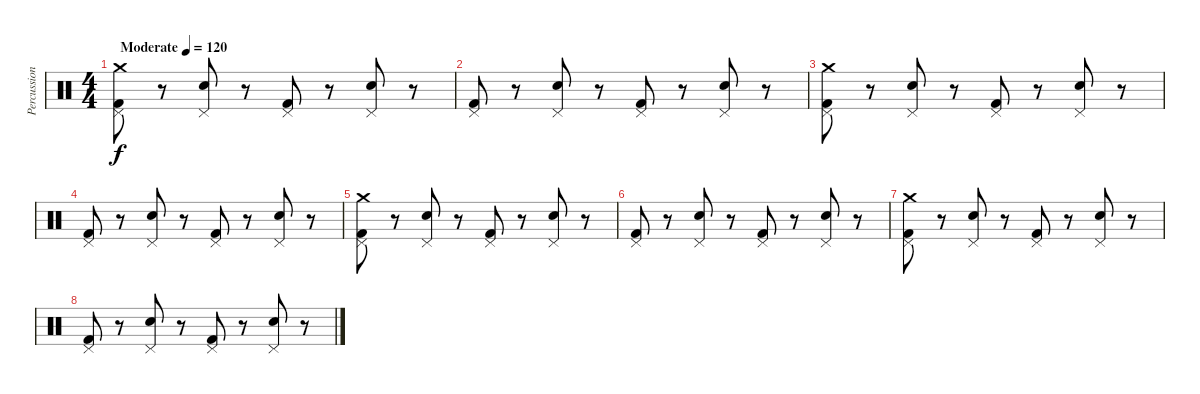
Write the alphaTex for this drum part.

\track ("Percussions" "Percussion") {instrument percussion}
\staff {score}
\articulation defaults
\ts (4 4)
\tempo (120 "Moderate")
\clef neutral
\ks c
("Crash medium (hit)" "Pedal Hi-Hat (hit)" "Kick (hit) 2").8{dy f} r.8 ("Pedal Hi-Hat (hit)" "Snare (hit) 2").8 r.8 ("Pedal Hi-Hat (hit)" "Kick (hit) 2").8 r.8 ("Pedal Hi-Hat (hit)" "Snare (hit) 2").8 r.8 |
("Pedal Hi-Hat (hit)" "Kick (hit) 2").8 r.8 ("Pedal Hi-Hat (hit)" "Snare (hit) 2").8 r.8 ("Pedal Hi-Hat (hit)" "Kick (hit) 2").8 r.8 ("Pedal Hi-Hat (hit)" "Snare (hit) 2").8 r.8 |
("Crash medium (hit)" "Pedal Hi-Hat (hit)" "Kick (hit) 2").8 r.8 ("Pedal Hi-Hat (hit)" "Snare (hit) 2").8 r.8 ("Pedal Hi-Hat (hit)" "Kick (hit) 2").8 r.8 ("Pedal Hi-Hat (hit)" "Snare (hit) 2").8 r.8 |
("Pedal Hi-Hat (hit)" "Kick (hit) 2").8 r.8 ("Pedal Hi-Hat (hit)" "Snare (hit) 2").8 r.8 ("Pedal Hi-Hat (hit)" "Kick (hit) 2").8 r.8 ("Pedal Hi-Hat (hit)" "Snare (hit) 2").8 r.8 |
("Crash medium (hit)" "Pedal Hi-Hat (hit)" "Kick (hit) 2").8 r.8 ("Pedal Hi-Hat (hit)" "Snare (hit) 2").8 r.8 ("Pedal Hi-Hat (hit)" "Kick (hit) 2").8 r.8 ("Pedal Hi-Hat (hit)" "Snare (hit) 2").8 r.8 |
("Pedal Hi-Hat (hit)" "Kick (hit) 2").8 r.8 ("Pedal Hi-Hat (hit)" "Snare (hit) 2").8 r.8 ("Pedal Hi-Hat (hit)" "Kick (hit) 2").8 r.8 ("Pedal Hi-Hat (hit)" "Snare (hit) 2").8 r.8 |
("Crash medium (hit)" "Pedal Hi-Hat (hit)" "Kick (hit) 2").8 r.8 ("Pedal Hi-Hat (hit)" "Snare (hit) 2").8 r.8 ("Pedal Hi-Hat (hit)" "Kick (hit) 2").8 r.8 ("Pedal Hi-Hat (hit)" "Snare (hit) 2").8 r.8 |
("Pedal Hi-Hat (hit)" "Kick (hit) 2").8 r.8 ("Pedal Hi-Hat (hit)" "Snare (hit) 2").8 r.8 ("Pedal Hi-Hat (hit)" "Kick (hit) 2").8 r.8 ("Pedal Hi-Hat (hit)" "Snare (hit) 2").8 r.8
